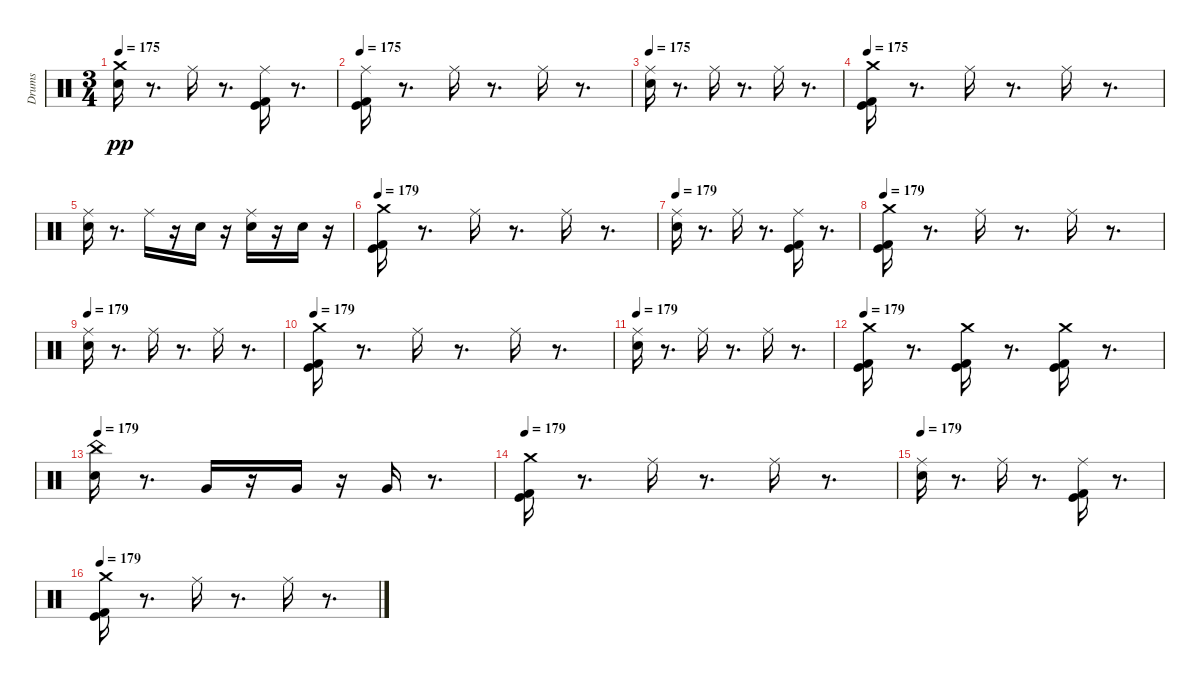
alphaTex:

\track ("Drums" "Drums") {instrument percussion}
\staff {score}
\articulation defaults
\ts (3 4)
\tempo 175
\clef neutral
\ks c
("Crash medium (hit)" "Snare (hit) 2").16{dy pp} r.8{d} "Ride (middle)".16 r.8{d} ("Ride (middle)" "Kick (hit) 2" "Kick (hit)").16 r.8{d} |
\tempo 175
("Ride (middle)" "Kick (hit) 2" "Kick (hit)").16 r.8{d} "Ride (middle)".16 r.8{d} "Ride (middle)".16 r.8{d} |
\tempo 175
("Ride (middle)" "Snare (hit) 2").16 r.8{d} "Ride (middle)".16 r.8{d} "Ride (middle)".16 r.8{d} |
\tempo 175
("Crash medium (hit)" "Kick (hit) 2" "Kick (hit)").16 r.8{d} "Ride (middle)".16 r.8{d} "Ride (middle)".16 r.8{d} |
("Ride (middle)" "Snare (hit) 2").16 r.8{d} "Ride (middle)".16 r.16 "Snare (hit) 2".16 r.16 ("Snare (hit) 2" "Ride (middle)").16 r.16 "Snare (hit) 2".16 r.16 |
\tempo 179
("Crash medium (hit)" "Kick (hit) 2" "Kick (hit)").16 r.8{d} "Ride (middle)".16 r.8{d} "Ride (middle)".16 r.8{d} |
\tempo 179
("Ride (middle)" "Snare (hit) 2").16 r.8{d} "Ride (middle)".16 r.8{d} ("Ride (middle)" "Kick (hit) 2" "Kick (hit)").16 r.8{d} |
\tempo 179
("Crash medium (hit)" "Kick (hit) 2" "Kick (hit)").16 r.8{d} "Ride (middle)".16 r.8{d} "Ride (middle)".16 r.8{d} |
\tempo 179
("Ride (middle)" "Snare (hit) 2").16 r.8{d} "Ride (middle)".16 r.8{d} "Ride (middle)".16 r.8{d} |
\tempo 179
("Crash medium (hit)" "Kick (hit) 2" "Kick (hit)").16 r.8{d} "Ride (middle)".16 r.8{d} "Ride (middle)".16 r.8{d} |
\tempo 179
("Ride (middle)" "Snare (hit) 2").16 r.8{d} "Ride (middle)".16 r.8{d} "Ride (middle)".16 r.8{d} |
\tempo 179
("Crash medium (hit)" "Kick (hit) 2" "Kick (hit)").16 r.8{d} ("Crash medium (hit)" "Kick (hit) 2" "Kick (hit)").16 r.8{d} ("Crash medium (hit)" "Kick (hit) 2" "Kick (hit)").16 r.8{d} |
\tempo 179
("Snare (hit) 2" "China (hit)").16 r.8{d} "Very Low Tom (hit)".16 r.16 "Very Low Tom (hit)".16 r.16 "Very Low Tom (hit)".16 r.8{d} |
\tempo 179
("Crash medium (hit)" "Kick (hit) 2" "Kick (hit)").16 r.8{d} "Ride (middle)".16 r.8{d} "Ride (middle)".16 r.8{d} |
\tempo 179
("Ride (middle)" "Snare (hit) 2").16 r.8{d} "Ride (middle)".16 r.8{d} ("Ride (middle)" "Kick (hit) 2" "Kick (hit)").16 r.8{d} |
\tempo 179
("Crash medium (hit)" "Kick (hit) 2" "Kick (hit)").16 r.8{d} "Ride (middle)".16 r.8{d} "Ride (middle)".16 r.8{d}
